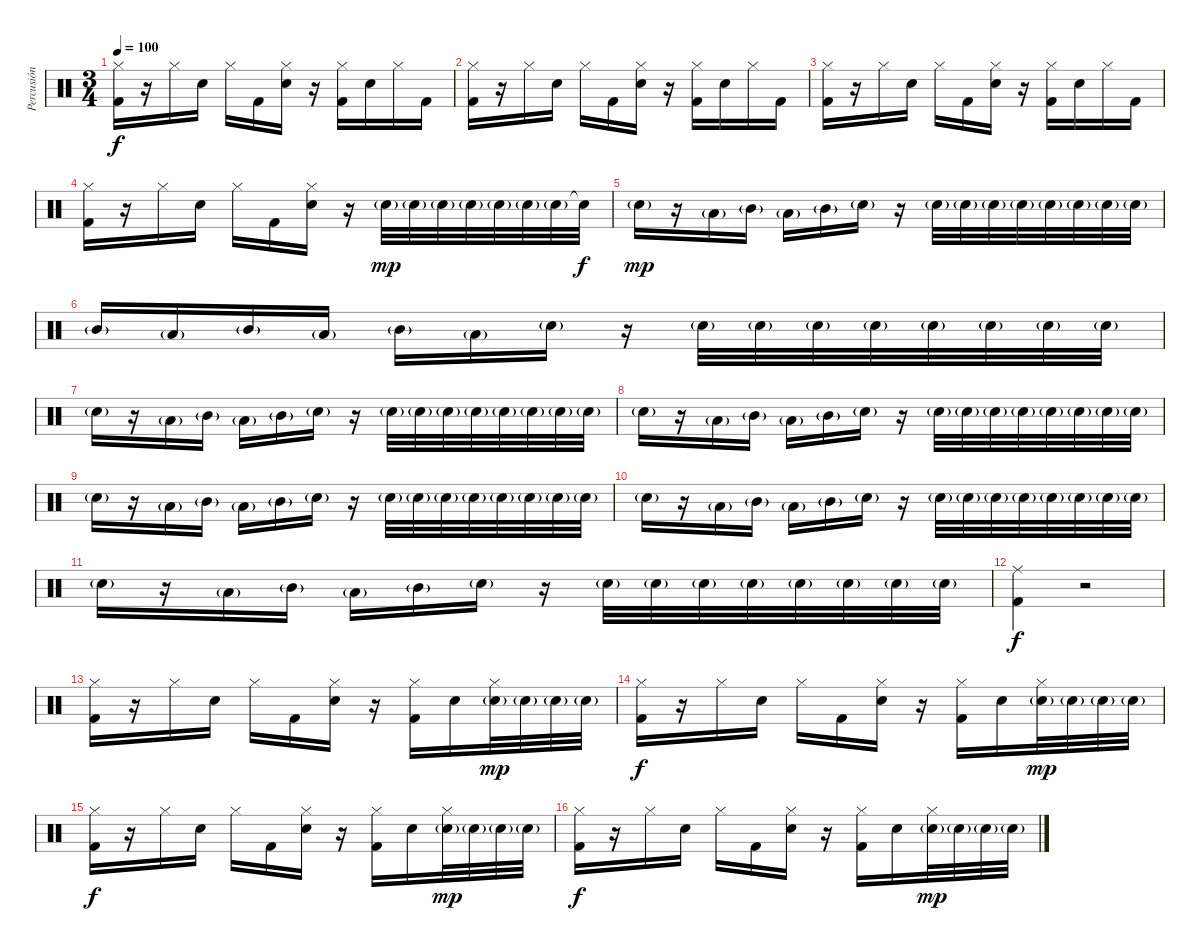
\track ("Percusión" "Percusión") {instrument percussion}
\staff {score}
\articulation defaults
\ts (3 4)
\tempo 100
\clef neutral
\ks c
("Hi-Hat (closed)" "Kick (hit) 2").16{dy f} r.16 "Hi-Hat (closed)".16 "Snare (hit) 2".16 "Hi-Hat (closed)".16 "Kick (hit) 2".16 ("Hi-Hat (closed)" "Snare (hit) 2").16 r.16 ("Hi-Hat (closed)" "Kick (hit) 2").16 "Snare (hit) 2".16 "Hi-Hat (closed)".16 "Kick (hit) 2".16 |
("Hi-Hat (closed)" "Kick (hit) 2").16 r.16 "Hi-Hat (closed)".16 "Snare (hit) 2".16 "Hi-Hat (closed)".16 "Kick (hit) 2".16 ("Hi-Hat (closed)" "Snare (hit) 2").16 r.16 ("Hi-Hat (closed)" "Kick (hit) 2").16 "Snare (hit) 2".16 "Hi-Hat (closed)".16 "Kick (hit) 2".16 |
("Hi-Hat (closed)" "Kick (hit) 2").16 r.16 "Hi-Hat (closed)".16 "Snare (hit) 2".16 "Hi-Hat (closed)".16 "Kick (hit) 2".16 ("Hi-Hat (closed)" "Snare (hit) 2").16 r.16 ("Hi-Hat (closed)" "Kick (hit) 2").16 "Snare (hit) 2".16 "Hi-Hat (closed)".16 "Kick (hit) 2".16 |
("Hi-Hat (closed)" "Kick (hit) 2").16 r.16 "Hi-Hat (closed)".16 "Snare (hit) 2".16 "Hi-Hat (closed)".16 "Kick (hit) 2".16 ("Hi-Hat (closed)" "Snare (hit) 2").16 r.16 "Snare (hit) 2"{g}.32{dy mp} "Snare (hit) 2"{g}.32 "Snare (hit) 2"{g}.32 "Snare (hit) 2"{g}.32 "Snare (hit) 2"{g}.32 "Snare (hit) 2"{g}.32 "Snare (hit) 2"{g}.32 "Snare (hit) 2"{t}.32{dy f} |
"Snare (hit) 2"{g}.16{dy mp} r.16 "Low Tom (hit)"{g}.16 "Mid Tom (hit)"{g}.16 "Low Tom (hit)"{g}.16 "Mid Tom (hit)"{g}.16 "Snare (hit) 2"{g}.16 r.16 "Snare (hit) 2"{g}.32 "Snare (hit) 2"{g}.32 "Snare (hit) 2"{g}.32 "Snare (hit) 2"{g}.32 "Snare (hit) 2"{g}.32 "Snare (hit) 2"{g}.32 "Snare (hit) 2"{g}.32 "Snare (hit) 2"{g}.32 |
"Mid Tom (hit)"{g}.16 "Low Tom (hit)"{g}.16 "Mid Tom (hit)"{g}.16 "Low Tom (hit)"{g}.16 "Mid Tom (hit)"{g}.16 "Low Tom (hit)"{g}.16 "Snare (hit) 2"{g}.16 r.16 "Snare (hit) 2"{g}.32 "Snare (hit) 2"{g}.32 "Snare (hit) 2"{g}.32 "Snare (hit) 2"{g}.32 "Snare (hit) 2"{g}.32 "Snare (hit) 2"{g}.32 "Snare (hit) 2"{g}.32 "Snare (hit) 2"{g}.32 |
"Snare (hit) 2"{g}.16 r.16 "Low Tom (hit)"{g}.16 "Mid Tom (hit)"{g}.16 "Low Tom (hit)"{g}.16 "Mid Tom (hit)"{g}.16 "Snare (hit) 2"{g}.16 r.16 "Snare (hit) 2"{g}.32 "Snare (hit) 2"{g}.32 "Snare (hit) 2"{g}.32 "Snare (hit) 2"{g}.32 "Snare (hit) 2"{g}.32 "Snare (hit) 2"{g}.32 "Snare (hit) 2"{g}.32 "Snare (hit) 2"{g}.32 |
"Snare (hit) 2"{g}.16 r.16 "Low Tom (hit)"{g}.16 "Mid Tom (hit)"{g}.16 "Low Tom (hit)"{g}.16 "Mid Tom (hit)"{g}.16 "Snare (hit) 2"{g}.16 r.16 "Snare (hit) 2"{g}.32 "Snare (hit) 2"{g}.32 "Snare (hit) 2"{g}.32 "Snare (hit) 2"{g}.32 "Snare (hit) 2"{g}.32 "Snare (hit) 2"{g}.32 "Snare (hit) 2"{g}.32 "Snare (hit) 2"{g}.32 |
"Snare (hit) 2"{g}.16 r.16 "Low Tom (hit)"{g}.16 "Mid Tom (hit)"{g}.16 "Low Tom (hit)"{g}.16 "Mid Tom (hit)"{g}.16 "Snare (hit) 2"{g}.16 r.16 "Snare (hit) 2"{g}.32 "Snare (hit) 2"{g}.32 "Snare (hit) 2"{g}.32 "Snare (hit) 2"{g}.32 "Snare (hit) 2"{g}.32 "Snare (hit) 2"{g}.32 "Snare (hit) 2"{g}.32 "Snare (hit) 2"{g}.32 |
"Snare (hit) 2"{g}.16 r.16 "Low Tom (hit)"{g}.16 "Mid Tom (hit)"{g}.16 "Low Tom (hit)"{g}.16 "Mid Tom (hit)"{g}.16 "Snare (hit) 2"{g}.16 r.16 "Snare (hit) 2"{g}.32 "Snare (hit) 2"{g}.32 "Snare (hit) 2"{g}.32 "Snare (hit) 2"{g}.32 "Snare (hit) 2"{g}.32 "Snare (hit) 2"{g}.32 "Snare (hit) 2"{g}.32 "Snare (hit) 2"{g}.32 |
"Snare (hit) 2"{g}.16 r.16 "Low Tom (hit)"{g}.16 "Mid Tom (hit)"{g}.16 "Low Tom (hit)"{g}.16 "Mid Tom (hit)"{g}.16 "Snare (hit) 2"{g}.16 r.16 "Snare (hit) 2"{g}.32 "Snare (hit) 2"{g}.32 "Snare (hit) 2"{g}.32 "Snare (hit) 2"{g}.32 "Snare (hit) 2"{g}.32 "Snare (hit) 2"{g}.32 "Snare (hit) 2"{g}.32 "Snare (hit) 2"{g}.32 |
("Ride (middle)" "Kick (hit) 2").4{dy f} r.2 |
("Hi-Hat (closed)" "Kick (hit) 2").16 r.16 "Hi-Hat (closed)".16 "Snare (hit) 2".16 "Hi-Hat (closed)".16 "Kick (hit) 2".16 ("Hi-Hat (closed)" "Snare (hit) 2").16 r.16 ("Hi-Hat (closed)" "Kick (hit) 2").16 "Snare (hit) 2".16 ("Hi-Hat (closed)" "Snare (hit) 2"{g}).32{dy mp} "Snare (hit) 2"{g}.32 "Snare (hit) 2"{g}.32 "Snare (hit) 2"{g}.32 |
("Hi-Hat (closed)" "Kick (hit) 2").16{dy f} r.16 "Hi-Hat (closed)".16 "Snare (hit) 2".16 "Hi-Hat (closed)".16 "Kick (hit) 2".16 ("Hi-Hat (closed)" "Snare (hit) 2").16 r.16 ("Hi-Hat (closed)" "Kick (hit) 2").16 "Snare (hit) 2".16 ("Hi-Hat (closed)" "Snare (hit) 2"{g}).32{dy mp} "Snare (hit) 2"{g}.32 "Snare (hit) 2"{g}.32 "Snare (hit) 2"{g}.32 |
("Hi-Hat (closed)" "Kick (hit) 2").16{dy f} r.16 "Hi-Hat (closed)".16 "Snare (hit) 2".16 "Hi-Hat (closed)".16 "Kick (hit) 2".16 ("Hi-Hat (closed)" "Snare (hit) 2").16 r.16 ("Hi-Hat (closed)" "Kick (hit) 2").16 "Snare (hit) 2".16 ("Hi-Hat (closed)" "Snare (hit) 2"{g}).32{dy mp} "Snare (hit) 2"{g}.32 "Snare (hit) 2"{g}.32 "Snare (hit) 2"{g}.32 |
("Hi-Hat (closed)" "Kick (hit) 2").16{dy f} r.16 "Hi-Hat (closed)".16 "Snare (hit) 2".16 "Hi-Hat (closed)".16 "Kick (hit) 2".16 ("Hi-Hat (closed)" "Snare (hit) 2").16 r.16 ("Hi-Hat (closed)" "Kick (hit) 2").16 "Snare (hit) 2".16 ("Hi-Hat (closed)" "Snare (hit) 2"{g}).32{dy mp} "Snare (hit) 2"{g}.32 "Snare (hit) 2"{g}.32 "Snare (hit) 2"{g}.32
